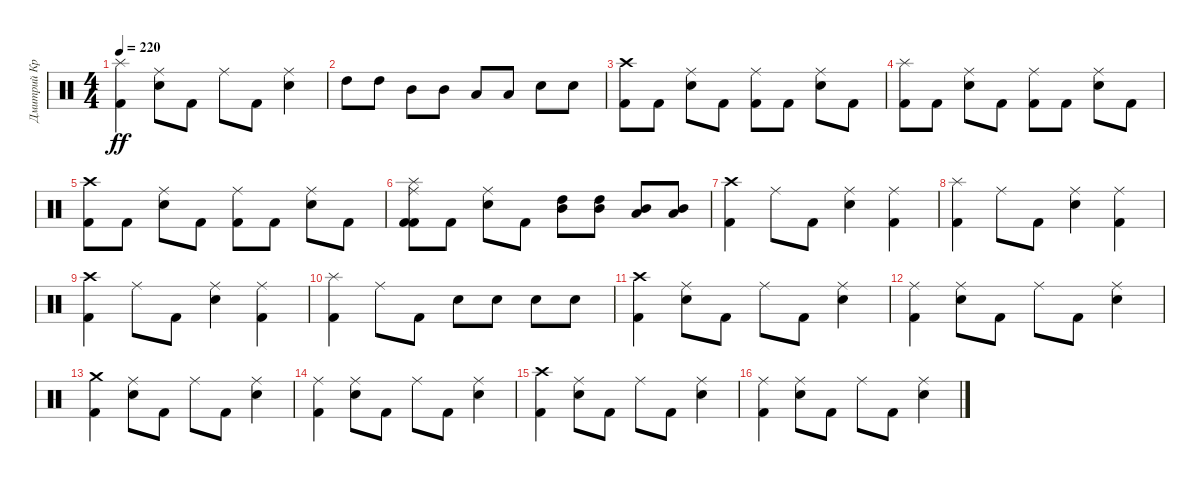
\track ("Дмитрий Кривенков" "Дмитрий Кр") {instrument percussion}
\staff {score}
\articulation defaults
\ts (4 4)
\tempo 220
\clef neutral
\ks c
("Splash (hit)" "Kick (hit) 2").4{dy ff} ("Ride (middle)" "Snare (hit) 2").8 "Kick (hit) 2".8 "Ride (middle)".8 "Kick (hit) 2".8 ("Ride (middle)" "Snare (hit) 2").4 |
"High Tom (hit)".8 "High Tom (hit)".8 "Mid Tom (hit)".8 "Mid Tom (hit)".8 "Low Tom (hit)".8 "Low Tom (hit)".8 "Snare (hit) 2".8 "Snare (hit) 2".8 |
("Crash high (hit)" "Kick (hit) 2").8 "Kick (hit) 2".8 ("Ride (middle)" "Snare (hit) 2").8 "Kick (hit) 2".8 ("Ride (middle)" "Kick (hit) 2").8 "Kick (hit) 2".8 ("Snare (hit) 2" "Ride (middle)").8 "Kick (hit) 2".8 |
("Kick (hit) 2" "Splash (hit)").8 "Kick (hit) 2".8 ("Snare (hit) 2" "Ride (middle)").8 "Kick (hit) 2".8 ("Kick (hit) 2" "Ride (middle)").8 "Kick (hit) 2".8 ("Snare (hit) 2" "Ride (middle)").8 "Kick (hit) 2".8 |
("Crash high (hit)" "Kick (hit) 2").8 "Kick (hit) 2".8 ("Ride (middle)" "Snare (hit) 2").8 "Kick (hit) 2".8 ("Ride (middle)" "Kick (hit) 2").8 "Kick (hit) 2".8 ("Snare (hit) 2" "Ride (middle)").8 "Kick (hit) 2".8 |
("Ride (middle)" "Kick (hit) 2" "Kick (hit) 2" "Splash (hit)").8 "Kick (hit) 2".8 ("Ride (middle)" "Snare (hit) 2").8 "Kick (hit) 2".8 ("Mid Tom (hit)" "High Tom (hit)").8 ("Mid Tom (hit)" "High Tom (hit)").8 ("Low Tom (hit)" "Mid Tom (hit)").8 ("Low Tom (hit)" "Mid Tom (hit)").8 |
("Kick (hit) 2" "Crash high (hit)").4 "Ride (middle)".8 "Kick (hit) 2".8 ("Snare (hit) 2" "Ride (middle)").4 ("Kick (hit) 2" "Ride (middle)").4 |
("Splash (hit)" "Kick (hit) 2").4 "Ride (middle)".8 "Kick (hit) 2".8 ("Ride (middle)" "Snare (hit) 2").4 ("Ride (middle)" "Kick (hit) 2").4 |
("Kick (hit) 2" "Crash high (hit)").4 "Ride (middle)".8 "Kick (hit) 2".8 ("Snare (hit) 2" "Ride (middle)").4 ("Kick (hit) 2" "Ride (middle)").4 |
("Splash (hit)" "Kick (hit) 2").4 "Ride (middle)".8 "Kick (hit) 2".8 "Snare (hit) 2".8 "Snare (hit) 2".8 "Snare (hit) 2".8 "Snare (hit) 2".8 |
("Crash high (hit)" "Kick (hit) 2").4 ("Ride (middle)" "Snare (hit) 2").8 "Kick (hit) 2".8 "Ride (middle)".8 "Kick (hit) 2".8 ("Ride (middle)" "Snare (hit) 2").4 |
("Kick (hit) 2" "Ride (middle)").4 ("Snare (hit) 2" "Ride (middle)").8 "Kick (hit) 2".8 "Ride (middle)".8 "Kick (hit) 2".8 ("Snare (hit) 2" "Ride (middle)").4 |
("Crash medium (hit)" "Kick (hit) 2").4 ("Ride (middle)" "Snare (hit) 2").8 "Kick (hit) 2".8 "Ride (middle)".8 "Kick (hit) 2".8 ("Ride (middle)" "Snare (hit) 2").4 |
("Kick (hit) 2" "Ride (middle)").4 ("Snare (hit) 2" "Ride (middle)").8 "Kick (hit) 2".8 "Ride (middle)".8 "Kick (hit) 2".8 ("Snare (hit) 2" "Ride (middle)").4 |
("Crash high (hit)" "Kick (hit) 2").4 ("Ride (middle)" "Snare (hit) 2").8 "Kick (hit) 2".8 "Ride (middle)".8 "Kick (hit) 2".8 ("Ride (middle)" "Snare (hit) 2").4 |
("Kick (hit) 2" "Ride (middle)").4 ("Snare (hit) 2" "Ride (middle)").8 "Kick (hit) 2".8 "Ride (middle)".8 "Kick (hit) 2".8 ("Snare (hit) 2" "Ride (middle)").4
